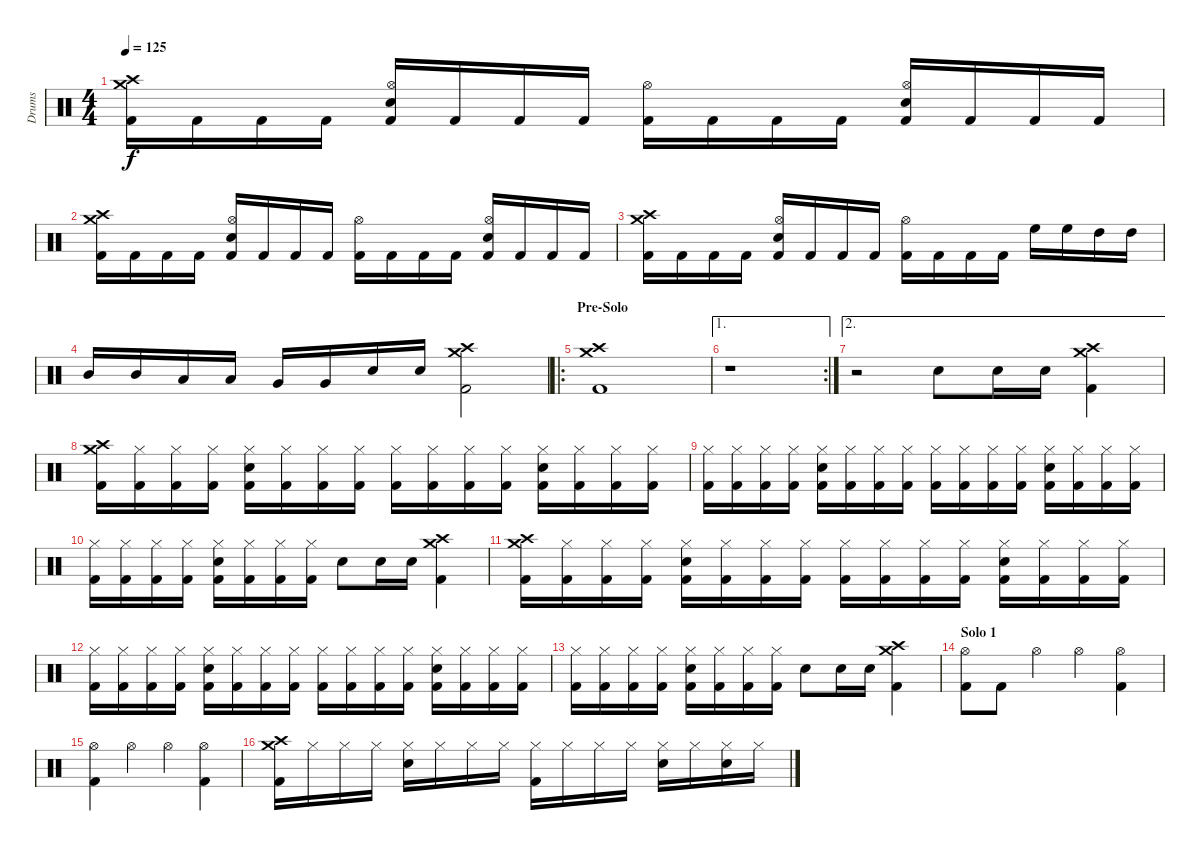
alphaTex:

\track ("Drums" "Drums") {instrument percussion}
\staff {score}
\articulation defaults
\ts (4 4)
\tempo 125
\clef neutral
\ks c
("Crash medium (hit)" "Crash high (hit)" "Kick (hit) 2").16{dy f} "Kick (hit) 2".16 "Kick (hit) 2".16 "Kick (hit) 2".16 ("Hi-Hat (open)" "Snare (hit) 2" "Kick (hit) 2").16 "Kick (hit) 2".16 "Kick (hit) 2".16 "Kick (hit) 2".16 ("Hi-Hat (open)" "Kick (hit) 2").16 "Kick (hit) 2".16 "Kick (hit) 2".16 "Kick (hit) 2".16 ("Hi-Hat (open)" "Snare (hit) 2" "Kick (hit) 2").16 "Kick (hit) 2".16 "Kick (hit) 2".16 "Kick (hit) 2".16 |
("Crash medium (hit)" "Crash high (hit)" "Kick (hit) 2").16 "Kick (hit) 2".16 "Kick (hit) 2".16 "Kick (hit) 2".16 ("Hi-Hat (open)" "Snare (hit) 2" "Kick (hit) 2").16 "Kick (hit) 2".16 "Kick (hit) 2".16 "Kick (hit) 2".16 ("Hi-Hat (open)" "Kick (hit) 2").16 "Kick (hit) 2".16 "Kick (hit) 2".16 "Kick (hit) 2".16 ("Hi-Hat (open)" "Snare (hit) 2" "Kick (hit) 2").16 "Kick (hit) 2".16 "Kick (hit) 2".16 "Kick (hit) 2".16 |
("Crash medium (hit)" "Crash high (hit)" "Kick (hit) 2").16 "Kick (hit) 2".16 "Kick (hit) 2".16 "Kick (hit) 2".16 ("Hi-Hat (open)" "Snare (hit) 2" "Kick (hit) 2").16 "Kick (hit) 2".16 "Kick (hit) 2".16 "Kick (hit) 2".16 ("Hi-Hat (open)" "Kick (hit) 2").16 "Kick (hit) 2".16 "Kick (hit) 2".16 "Kick (hit) 2".16 "High Floor Tom (hit)".16 "High Floor Tom (hit)".16 "High Tom (hit)".16 "High Tom (hit)".16 |
"Mid Tom (hit)".16 "Mid Tom (hit)".16 "Low Tom (hit)".16 "Low Tom (hit)".16 "Very Low Tom (hit)".16 "Very Low Tom (hit)".16 "Snare (hit) 2".16 "Snare (hit) 2".16 ("Crash medium (hit)" "Crash high (hit)" "Kick (hit) 2").2 |
\ro
\section ("" "Pre-Solo")
("Crash medium (hit)" "Crash high (hit)" "Kick (hit) 2").1 |
\ae 1
\rc 2
r.1 |
\ae 2
r.2 "Snare (hit) 2".8 "Snare (hit) 2".16 "Snare (hit) 2".16 ("Crash medium (hit)" "Crash high (hit)" "Kick (hit) 2").4 |
("Crash medium (hit)" "Crash high (hit)" "Kick (hit) 2").16 ("Hi-Hat (closed)" "Kick (hit) 2").16 ("Hi-Hat (closed)" "Kick (hit) 2").16 ("Hi-Hat (closed)" "Kick (hit) 2").16 ("Hi-Hat (closed)" "Snare (hit) 2" "Kick (hit) 2").16 ("Hi-Hat (closed)" "Kick (hit) 2").16 ("Hi-Hat (closed)" "Kick (hit) 2").16 ("Hi-Hat (closed)" "Kick (hit) 2").16 ("Hi-Hat (closed)" "Kick (hit) 2").16 ("Hi-Hat (closed)" "Kick (hit) 2").16 ("Hi-Hat (closed)" "Kick (hit) 2").16 ("Hi-Hat (closed)" "Kick (hit) 2").16 ("Hi-Hat (closed)" "Snare (hit) 2" "Kick (hit) 2").16 ("Hi-Hat (closed)" "Kick (hit) 2").16 ("Hi-Hat (closed)" "Kick (hit) 2").16 ("Hi-Hat (closed)" "Kick (hit) 2").16 |
("Hi-Hat (closed)" "Kick (hit) 2").16 ("Hi-Hat (closed)" "Kick (hit) 2").16 ("Hi-Hat (closed)" "Kick (hit) 2").16 ("Hi-Hat (closed)" "Kick (hit) 2").16 ("Hi-Hat (closed)" "Snare (hit) 2" "Kick (hit) 2").16 ("Hi-Hat (closed)" "Kick (hit) 2").16 ("Hi-Hat (closed)" "Kick (hit) 2").16 ("Hi-Hat (closed)" "Kick (hit) 2").16 ("Hi-Hat (closed)" "Kick (hit) 2").16 ("Hi-Hat (closed)" "Kick (hit) 2").16 ("Hi-Hat (closed)" "Kick (hit) 2").16 ("Hi-Hat (closed)" "Kick (hit) 2").16 ("Hi-Hat (closed)" "Snare (hit) 2" "Kick (hit) 2").16 ("Hi-Hat (closed)" "Kick (hit) 2").16 ("Hi-Hat (closed)" "Kick (hit) 2").16 ("Hi-Hat (closed)" "Kick (hit) 2").16 |
("Hi-Hat (closed)" "Kick (hit) 2").16 ("Hi-Hat (closed)" "Kick (hit) 2").16 ("Hi-Hat (closed)" "Kick (hit) 2").16 ("Hi-Hat (closed)" "Kick (hit) 2").16 ("Hi-Hat (closed)" "Snare (hit) 2" "Kick (hit) 2").16 ("Hi-Hat (closed)" "Kick (hit) 2").16 ("Hi-Hat (closed)" "Kick (hit) 2").16 ("Hi-Hat (closed)" "Kick (hit) 2").16 "Snare (hit) 2".8 "Snare (hit) 2".16 "Snare (hit) 2".16 ("Crash medium (hit)" "Crash high (hit)" "Kick (hit) 2").4 |
("Crash medium (hit)" "Crash high (hit)" "Kick (hit) 2").16 ("Hi-Hat (closed)" "Kick (hit) 2").16 ("Hi-Hat (closed)" "Kick (hit) 2").16 ("Hi-Hat (closed)" "Kick (hit) 2").16 ("Hi-Hat (closed)" "Snare (hit) 2" "Kick (hit) 2").16 ("Hi-Hat (closed)" "Kick (hit) 2").16 ("Hi-Hat (closed)" "Kick (hit) 2").16 ("Hi-Hat (closed)" "Kick (hit) 2").16 ("Hi-Hat (closed)" "Kick (hit) 2").16 ("Hi-Hat (closed)" "Kick (hit) 2").16 ("Hi-Hat (closed)" "Kick (hit) 2").16 ("Hi-Hat (closed)" "Kick (hit) 2").16 ("Hi-Hat (closed)" "Snare (hit) 2" "Kick (hit) 2").16 ("Hi-Hat (closed)" "Kick (hit) 2").16 ("Hi-Hat (closed)" "Kick (hit) 2").16 ("Hi-Hat (closed)" "Kick (hit) 2").16 |
("Hi-Hat (closed)" "Kick (hit) 2").16 ("Hi-Hat (closed)" "Kick (hit) 2").16 ("Hi-Hat (closed)" "Kick (hit) 2").16 ("Hi-Hat (closed)" "Kick (hit) 2").16 ("Hi-Hat (closed)" "Snare (hit) 2" "Kick (hit) 2").16 ("Hi-Hat (closed)" "Kick (hit) 2").16 ("Hi-Hat (closed)" "Kick (hit) 2").16 ("Hi-Hat (closed)" "Kick (hit) 2").16 ("Hi-Hat (closed)" "Kick (hit) 2").16 ("Hi-Hat (closed)" "Kick (hit) 2").16 ("Hi-Hat (closed)" "Kick (hit) 2").16 ("Hi-Hat (closed)" "Kick (hit) 2").16 ("Hi-Hat (closed)" "Snare (hit) 2" "Kick (hit) 2").16 ("Hi-Hat (closed)" "Kick (hit) 2").16 ("Hi-Hat (closed)" "Kick (hit) 2").16 ("Hi-Hat (closed)" "Kick (hit) 2").16 |
("Hi-Hat (closed)" "Kick (hit) 2").16 ("Hi-Hat (closed)" "Kick (hit) 2").16 ("Hi-Hat (closed)" "Kick (hit) 2").16 ("Hi-Hat (closed)" "Kick (hit) 2").16 ("Hi-Hat (closed)" "Snare (hit) 2" "Kick (hit) 2").16 ("Hi-Hat (closed)" "Kick (hit) 2").16 ("Hi-Hat (closed)" "Kick (hit) 2").16 ("Hi-Hat (closed)" "Kick (hit) 2").16 "Snare (hit) 2".8 "Snare (hit) 2".16 "Snare (hit) 2".16 ("Crash medium (hit)" "Crash high (hit)" "Kick (hit) 2").4 |
\section ("" "Solo 1")
("Hi-Hat (open)" "Kick (hit) 2").8 "Kick (hit) 2".8 "Hi-Hat (open)".4 "Hi-Hat (open)".4 ("Hi-Hat (open)" "Kick (hit) 2").4 |
("Hi-Hat (open)" "Kick (hit) 2").4 "Hi-Hat (open)".4 "Hi-Hat (open)".4 ("Hi-Hat (open)" "Kick (hit) 2").4 |
("Crash medium (hit)" "Crash high (hit)" "Kick (hit) 2").16 "Hi-Hat (closed)".16 "Hi-Hat (closed)".16 "Hi-Hat (closed)".16 ("Hi-Hat (closed)" "Snare (hit) 2").16 "Hi-Hat (closed)".16 "Hi-Hat (closed)".16 "Hi-Hat (closed)".16 ("Hi-Hat (closed)" "Kick (hit) 2").16 "Hi-Hat (closed)".16 "Hi-Hat (closed)".16 "Hi-Hat (closed)".16 ("Hi-Hat (closed)" "Snare (hit) 2").16 "Hi-Hat (closed)".16 ("Hi-Hat (closed)" "Snare (hit) 2").16 "Hi-Hat (closed)".16
